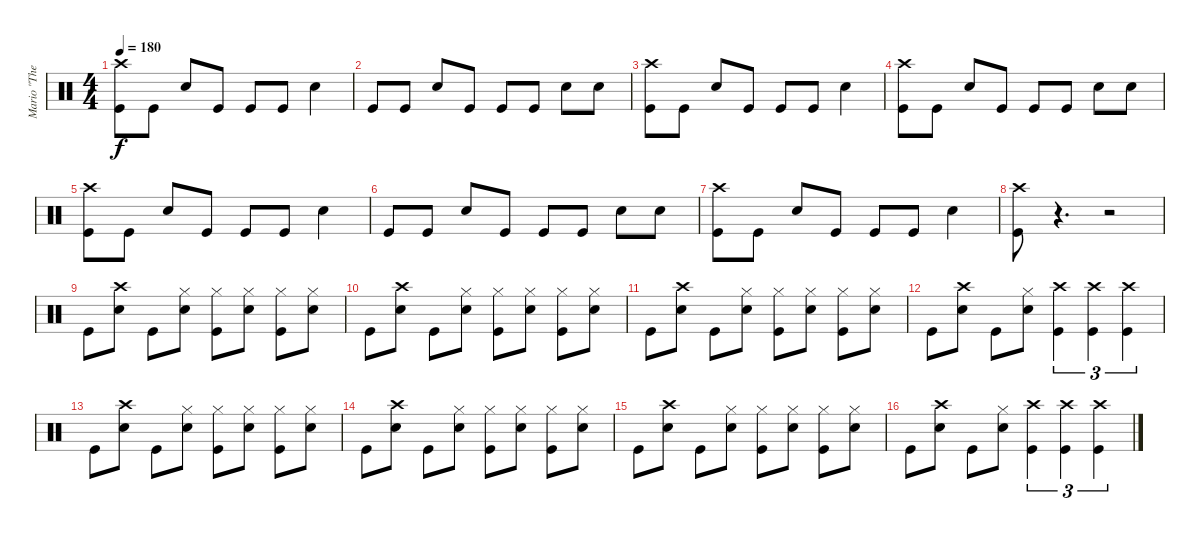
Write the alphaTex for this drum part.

\track ("Mario \"The dremmel\" Hirt" "Mario \"The") {instrument percussion}
\staff {score}
\articulation defaults
\ts (4 4)
\tempo 180
\clef neutral
\ks c
("Crash high (hit)" "Kick (hit)").8{dy f} "Kick (hit)".8 "Electric Snare (hit)".8 "Kick (hit)".8 "Kick (hit)".8 "Kick (hit)".8 "Electric Snare (hit)".4 |
"Kick (hit)".8 "Kick (hit)".8 "Electric Snare (hit)".8 "Kick (hit)".8 "Kick (hit)".8 "Kick (hit)".8 "Electric Snare (hit)".8 "Electric Snare (hit)".8 |
("Crash high (hit)" "Kick (hit)").8 "Kick (hit)".8 "Electric Snare (hit)".8 "Kick (hit)".8 "Kick (hit)".8 "Kick (hit)".8 "Electric Snare (hit)".4 |
("Crash high (hit)" "Kick (hit)").8 "Kick (hit)".8 "Electric Snare (hit)".8 "Kick (hit)".8 "Kick (hit)".8 "Kick (hit)".8 "Electric Snare (hit)".8 "Electric Snare (hit)".8 |
("Crash high (hit)" "Kick (hit)").8 "Kick (hit)".8 "Electric Snare (hit)".8 "Kick (hit)".8 "Kick (hit)".8 "Kick (hit)".8 "Electric Snare (hit)".4 |
"Kick (hit)".8 "Kick (hit)".8 "Electric Snare (hit)".8 "Kick (hit)".8 "Kick (hit)".8 "Kick (hit)".8 "Electric Snare (hit)".8 "Electric Snare (hit)".8 |
("Crash high (hit)" "Kick (hit)").8 "Kick (hit)".8 "Electric Snare (hit)".8 "Kick (hit)".8 "Kick (hit)".8 "Kick (hit)".8 "Electric Snare (hit)".4 |
("Crash high (hit)" "Kick (hit)").8 r.4{d} r.2 |
"Kick (hit)".8 ("Crash high (hit)" "Electric Snare (hit)").8 "Kick (hit)".8 ("Hi-Hat (closed)" "Electric Snare (hit)").8 ("Hi-Hat (closed)" "Kick (hit)").8 ("Hi-Hat (closed)" "Electric Snare (hit)").8 ("Hi-Hat (closed)" "Kick (hit)").8 ("Hi-Hat (closed)" "Electric Snare (hit)").8 |
"Kick (hit)".8 ("Crash high (hit)" "Electric Snare (hit)").8 "Kick (hit)".8 ("Hi-Hat (closed)" "Electric Snare (hit)").8 ("Hi-Hat (closed)" "Kick (hit)").8 ("Hi-Hat (closed)" "Electric Snare (hit)").8 ("Hi-Hat (closed)" "Kick (hit)").8 ("Hi-Hat (closed)" "Electric Snare (hit)").8 |
"Kick (hit)".8 ("Crash high (hit)" "Electric Snare (hit)").8 "Kick (hit)".8 ("Hi-Hat (closed)" "Electric Snare (hit)").8 ("Hi-Hat (closed)" "Kick (hit)").8 ("Hi-Hat (closed)" "Electric Snare (hit)").8 ("Hi-Hat (closed)" "Kick (hit)").8 ("Hi-Hat (closed)" "Electric Snare (hit)").8 |
"Kick (hit)".8 ("Crash high (hit)" "Electric Snare (hit)").8 "Kick (hit)".8 ("Hi-Hat (closed)" "Electric Snare (hit)").8 ("Crash high (hit)" "Kick (hit)").4{tu (3 2)} ("Crash high (hit)" "Kick (hit)").4{tu (3 2)} ("Crash high (hit)" "Kick (hit)").4{tu (3 2)} |
"Kick (hit)".8 ("Crash high (hit)" "Electric Snare (hit)").8 "Kick (hit)".8 ("Hi-Hat (closed)" "Electric Snare (hit)").8 ("Hi-Hat (closed)" "Kick (hit)").8 ("Hi-Hat (closed)" "Electric Snare (hit)").8 ("Hi-Hat (closed)" "Kick (hit)").8 ("Hi-Hat (closed)" "Electric Snare (hit)").8 |
"Kick (hit)".8 ("Crash high (hit)" "Electric Snare (hit)").8 "Kick (hit)".8 ("Hi-Hat (closed)" "Electric Snare (hit)").8 ("Hi-Hat (closed)" "Kick (hit)").8 ("Hi-Hat (closed)" "Electric Snare (hit)").8 ("Hi-Hat (closed)" "Kick (hit)").8 ("Hi-Hat (closed)" "Electric Snare (hit)").8 |
"Kick (hit)".8 ("Crash high (hit)" "Electric Snare (hit)").8 "Kick (hit)".8 ("Hi-Hat (closed)" "Electric Snare (hit)").8 ("Hi-Hat (closed)" "Kick (hit)").8 ("Hi-Hat (closed)" "Electric Snare (hit)").8 ("Hi-Hat (closed)" "Kick (hit)").8 ("Hi-Hat (closed)" "Electric Snare (hit)").8 |
"Kick (hit)".8 ("Crash high (hit)" "Electric Snare (hit)").8 "Kick (hit)".8 ("Hi-Hat (closed)" "Electric Snare (hit)").8 ("Crash high (hit)" "Kick (hit)").4{tu (3 2)} ("Crash high (hit)" "Kick (hit)").4{tu (3 2)} ("Crash high (hit)" "Kick (hit)").4{tu (3 2)}
